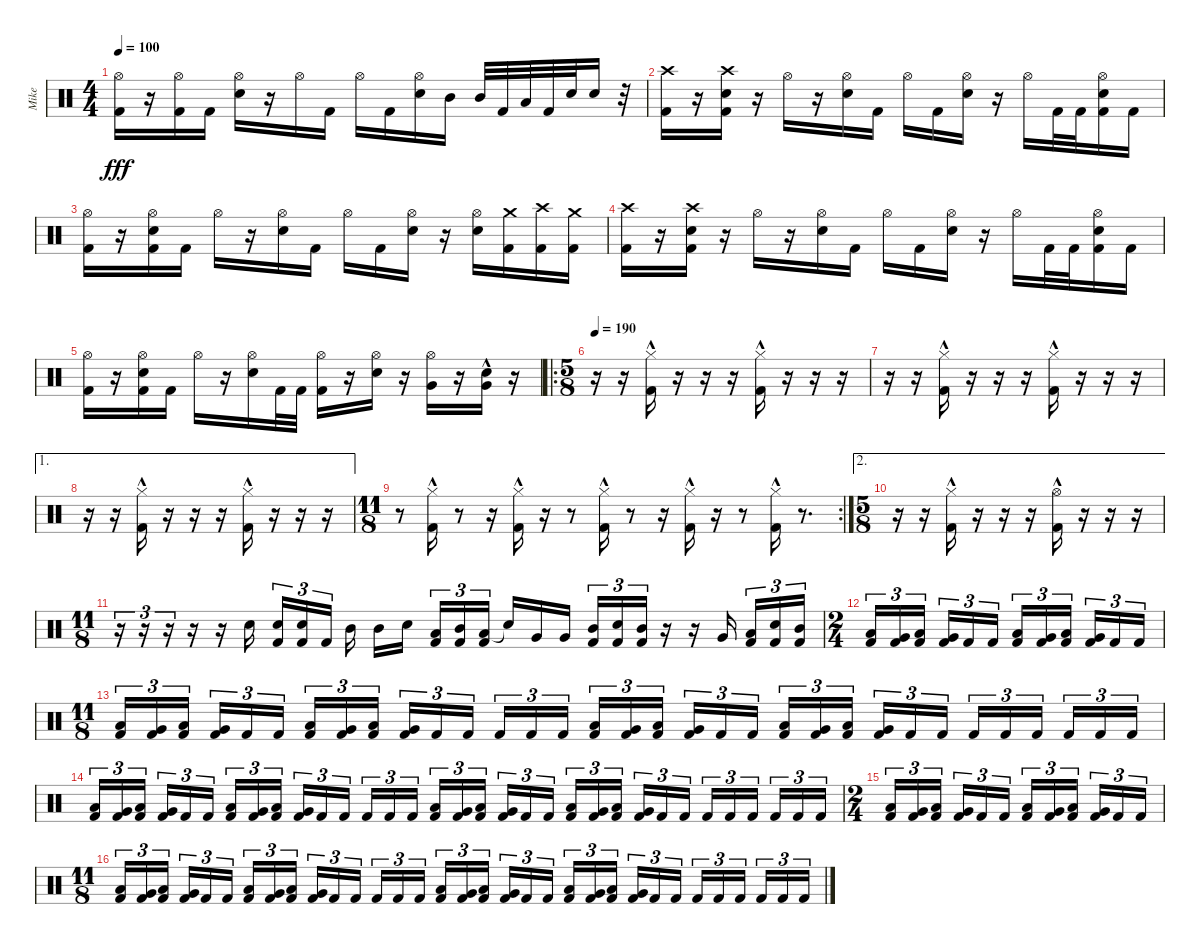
\track ("Mike" "Mike") {instrument percussion}
\staff {score}
\articulation defaults
\ts (4 4)
\tempo 100
\clef neutral
\ks c
("Hi-Hat (open)" "Kick (hit) 2").16{dy fff} r.16 ("Hi-Hat (open)" "Kick (hit) 2").16 "Kick (hit) 2".16 ("Hi-Hat (open)" "Electric Snare (hit)").16 r.16 "Hi-Hat (open)".16 "Kick (hit) 2".16 "Hi-Hat (open)".16 "Kick (hit) 2".16 ("Hi-Hat (open)" "Electric Snare (hit)").16 "Mid Tom (hit)".16 "Mid Tom (hit)".32 "Kick (hit) 2".32 "Low Tom (hit)".32 "Kick (hit) 2".32 "Electric Snare (hit)".32 "Electric Snare (hit)".16 r.32 |
("Crash high (hit)" "Kick (hit) 2").16 r.16 ("Crash high (hit)" "Electric Snare (hit)" "Kick (hit) 2").16 r.16 "Hi-Hat (open)".16 r.16 ("Hi-Hat (open)" "Electric Snare (hit)").16 "Kick (hit) 2".16 "Hi-Hat (open)".16 "Kick (hit) 2".16 ("Hi-Hat (open)" "Electric Snare (hit)").16 r.16 "Hi-Hat (open)".16 "Kick (hit) 2".32 "Kick (hit) 2".32 ("Hi-Hat (open)" "Electric Snare (hit)" "Kick (hit) 2").16 "Kick (hit) 2".16 |
("Hi-Hat (open)" "Kick (hit) 2").16 r.16 ("Hi-Hat (open)" "Electric Snare (hit)" "Kick (hit) 2").16 "Kick (hit) 2".16 "Hi-Hat (open)".16 r.16 ("Hi-Hat (open)" "Electric Snare (hit)").16 "Kick (hit) 2".16 "Hi-Hat (open)".16 "Kick (hit) 2".16 ("Hi-Hat (open)" "Electric Snare (hit)").16 r.16 ("Hi-Hat (open)" "Electric Snare (hit)").16 ("Crash medium (hit)" "Kick (hit) 2").16 ("Crash high (hit)" "Kick (hit) 2").16 ("Crash medium (hit)" "Kick (hit) 2").16 |
("Crash high (hit)" "Kick (hit) 2").16 r.16 ("Crash high (hit)" "Electric Snare (hit)" "Kick (hit) 2").16 r.16 "Hi-Hat (open)".16 r.16 ("Hi-Hat (open)" "Electric Snare (hit)").16 "Kick (hit) 2".16 "Hi-Hat (open)".16 "Kick (hit) 2".16 ("Hi-Hat (open)" "Electric Snare (hit)").16 r.16 "Hi-Hat (open)".16 "Kick (hit) 2".32 "Kick (hit) 2".32 ("Hi-Hat (open)" "Electric Snare (hit)" "Kick (hit) 2").16 "Kick (hit) 2".16 |
("Hi-Hat (open)" "Kick (hit) 2").16 r.16 ("Hi-Hat (open)" "Electric Snare (hit)" "Kick (hit) 2").16 "Kick (hit) 2".16 "Hi-Hat (open)".16 r.16 ("Hi-Hat (open)" "Electric Snare (hit)").16 "Kick (hit) 2".32 "Kick (hit) 2".32 ("Hi-Hat (open)" "Kick (hit) 2").16 r.16 ("Hi-Hat (open)" "Electric Snare (hit)").16 r.16 ("Hi-Hat (open)" "Very Low Tom (hit)").16 r.16 ("Electric Snare (hit)"{hac} "Very Low Tom (hit)").16 r.16 |
\ro
\ts (5 8)
\tempo 190
r.16 r.16 ("Hi-Hat (closed)" "Kick (hit) 2"{hac}).16 r.16 r.16 r.16 ("Hi-Hat (closed)" "Kick (hit) 2"{hac}).16 r.16 r.16 r.16 |
r.16 r.16 ("Hi-Hat (closed)" "Kick (hit) 2"{hac}).16 r.16 r.16 r.16 ("Hi-Hat (closed)" "Kick (hit) 2"{hac}).16 r.16 r.16 r.16 |
\ae 1
r.16 r.16 ("Hi-Hat (closed)" "Kick (hit) 2"{hac}).16 r.16 r.16 r.16 ("Hi-Hat (closed)" "Kick (hit) 2"{hac}).16 r.16 r.16 r.16 |
\rc 2
\ts (11 8)
r.8 ("Hi-Hat (closed)" "Kick (hit) 2"{hac}).16 r.8 r.16 ("Hi-Hat (closed)" "Kick (hit) 2"{hac}).16 r.16 r.8 ("Hi-Hat (closed)" "Kick (hit) 2"{hac}).16 r.8 r.16 ("Hi-Hat (closed)" "Kick (hit) 2"{hac}).16 r.16 r.8 ("Hi-Hat (closed)" "Kick (hit) 2"{hac}).16 r.8{d} |
\ae 2
\ts (5 8)
r.16 r.16 ("Hi-Hat (closed)" "Kick (hit) 2"{hac}).16 r.16 r.16 r.16 ("Hi-Hat (open)" "Kick (hit) 2"{hac}).16 r.16 r.16 r.16 |
\ts (11 8)
r.16{tu (3 2)} r.16{tu (3 2)} r.16{tu (3 2)} r.16 r.16 "Electric Snare (hit)".16{beam splitsecondary} ("Electric Snare (hit)" "Kick (hit) 2").16{tu (3 2)} ("Electric Snare (hit)" "Kick (hit) 2").16{tu (3 2)} "Kick (hit) 2".16{tu (3 2)} "Mid Tom (hit)".16 "Mid Tom (hit)".16 "Electric Snare (hit)".16 ("Low Tom (hit)" "Kick (hit) 2").16{tu (3 2)} ("Mid Tom (hit)" "Kick (hit) 2").16{tu (3 2)} ("Low Tom (hit)" "Kick (hit) 2").16{tu (3 2)} "Snare (hit)"{t}.16 "Very Low Tom (hit)".16 "Very Low Tom (hit)".16{beam splitsecondary} ("Mid Tom (hit)" "Kick (hit) 2").16{tu (3 2)} ("Electric Snare (hit)" "Kick (hit) 2").16{tu (3 2)} ("Mid Tom (hit)" "Kick (hit) 2").16{tu (3 2)} r.16 r.16 "Very Low Tom (hit)".16 ("Low Tom (hit)" "Kick (hit) 2").16{tu (3 2)} ("Electric Snare (hit)" "Kick (hit) 2").16{tu (3 2)} ("Mid Tom (hit)" "Kick (hit) 2").16{tu (3 2)} |
\ts (2 4)
("Low Tom (hit)" "Kick (hit) 2").16{tu (3 2)} ("Very Low Tom (hit)" "Kick (hit) 2").16{tu (3 2)} ("Low Tom (hit)" "Kick (hit) 2").16{tu (3 2) beam splitsecondary} ("Very Low Tom (hit)" "Kick (hit) 2").16{tu (3 2)} "Kick (hit) 2".16{tu (3 2)} "Kick (hit) 2".16{tu (3 2)} ("Low Tom (hit)" "Kick (hit) 2").16{tu (3 2)} ("Very Low Tom (hit)" "Kick (hit) 2").16{tu (3 2)} ("Low Tom (hit)" "Kick (hit) 2").16{tu (3 2) beam splitsecondary} ("Very Low Tom (hit)" "Kick (hit) 2").16{tu (3 2)} "Kick (hit) 2".16{tu (3 2)} "Kick (hit) 2".16{tu (3 2)} |
\ts (11 8)
("Low Tom (hit)" "Kick (hit) 2").16{tu (3 2)} ("Very Low Tom (hit)" "Kick (hit) 2").16{tu (3 2)} ("Low Tom (hit)" "Kick (hit) 2").16{tu (3 2)} ("Very Low Tom (hit)" "Kick (hit) 2").16{tu (3 2)} "Kick (hit) 2".16{tu (3 2)} "Kick (hit) 2".16{tu (3 2)} ("Low Tom (hit)" "Kick (hit) 2").16{tu (3 2)} ("Very Low Tom (hit)" "Kick (hit) 2").16{tu (3 2)} ("Low Tom (hit)" "Kick (hit) 2").16{tu (3 2)} ("Very Low Tom (hit)" "Kick (hit) 2").16{tu (3 2)} "Kick (hit) 2".16{tu (3 2)} "Kick (hit) 2".16{tu (3 2)} "Kick (hit) 2".16{tu (3 2)} "Kick (hit) 2".16{tu (3 2)} "Kick (hit) 2".16{tu (3 2)} ("Low Tom (hit)" "Kick (hit) 2").16{tu (3 2)} ("Very Low Tom (hit)" "Kick (hit) 2").16{tu (3 2)} ("Low Tom (hit)" "Kick (hit) 2").16{tu (3 2)} ("Very Low Tom (hit)" "Kick (hit) 2").16{tu (3 2)} "Kick (hit) 2".16{tu (3 2)} "Kick (hit) 2".16{tu (3 2)} ("Low Tom (hit)" "Kick (hit) 2").16{tu (3 2)} ("Very Low Tom (hit)" "Kick (hit) 2").16{tu (3 2)} ("Low Tom (hit)" "Kick (hit) 2").16{tu (3 2)} ("Very Low Tom (hit)" "Kick (hit) 2").16{tu (3 2)} "Kick (hit) 2".16{tu (3 2)} "Kick (hit) 2".16{tu (3 2)} "Kick (hit) 2".16{tu (3 2)} "Kick (hit) 2".16{tu (3 2)} "Kick (hit) 2".16{tu (3 2)} "Kick (hit) 2".16{tu (3 2)} "Kick (hit) 2".16{tu (3 2)} "Kick (hit) 2".16{tu (3 2)} |
("Low Tom (hit)" "Kick (hit) 2").16{tu (3 2)} ("Very Low Tom (hit)" "Kick (hit) 2").16{tu (3 2)} ("Low Tom (hit)" "Kick (hit) 2").16{tu (3 2)} ("Very Low Tom (hit)" "Kick (hit) 2").16{tu (3 2)} "Kick (hit) 2".16{tu (3 2)} "Kick (hit) 2".16{tu (3 2)} ("Low Tom (hit)" "Kick (hit) 2").16{tu (3 2)} ("Very Low Tom (hit)" "Kick (hit) 2").16{tu (3 2)} ("Low Tom (hit)" "Kick (hit) 2").16{tu (3 2)} ("Very Low Tom (hit)" "Kick (hit) 2").16{tu (3 2)} "Kick (hit) 2".16{tu (3 2)} "Kick (hit) 2".16{tu (3 2)} "Kick (hit) 2".16{tu (3 2)} "Kick (hit) 2".16{tu (3 2)} "Kick (hit) 2".16{tu (3 2)} ("Low Tom (hit)" "Kick (hit) 2").16{tu (3 2)} ("Very Low Tom (hit)" "Kick (hit) 2").16{tu (3 2)} ("Low Tom (hit)" "Kick (hit) 2").16{tu (3 2)} ("Very Low Tom (hit)" "Kick (hit) 2").16{tu (3 2)} "Kick (hit) 2".16{tu (3 2)} "Kick (hit) 2".16{tu (3 2)} ("Low Tom (hit)" "Kick (hit) 2").16{tu (3 2)} ("Very Low Tom (hit)" "Kick (hit) 2").16{tu (3 2)} ("Low Tom (hit)" "Kick (hit) 2").16{tu (3 2)} ("Very Low Tom (hit)" "Kick (hit) 2").16{tu (3 2)} "Kick (hit) 2".16{tu (3 2)} "Kick (hit) 2".16{tu (3 2)} "Kick (hit) 2".16{tu (3 2)} "Kick (hit) 2".16{tu (3 2)} "Kick (hit) 2".16{tu (3 2)} "Kick (hit) 2".16{tu (3 2)} "Kick (hit) 2".16{tu (3 2)} "Kick (hit) 2".16{tu (3 2)} |
\ts (2 4)
("Low Tom (hit)" "Kick (hit) 2").16{tu (3 2)} ("Very Low Tom (hit)" "Kick (hit) 2").16{tu (3 2)} ("Low Tom (hit)" "Kick (hit) 2").16{tu (3 2) beam splitsecondary} ("Very Low Tom (hit)" "Kick (hit) 2").16{tu (3 2)} "Kick (hit) 2".16{tu (3 2)} "Kick (hit) 2".16{tu (3 2)} ("Low Tom (hit)" "Kick (hit) 2").16{tu (3 2)} ("Very Low Tom (hit)" "Kick (hit) 2").16{tu (3 2)} ("Low Tom (hit)" "Kick (hit) 2").16{tu (3 2) beam splitsecondary} ("Very Low Tom (hit)" "Kick (hit) 2").16{tu (3 2)} "Kick (hit) 2".16{tu (3 2)} "Kick (hit) 2".16{tu (3 2)} |
\ts (11 8)
("Low Tom (hit)" "Kick (hit) 2").16{tu (3 2)} ("Very Low Tom (hit)" "Kick (hit) 2").16{tu (3 2)} ("Low Tom (hit)" "Kick (hit) 2").16{tu (3 2)} ("Very Low Tom (hit)" "Kick (hit) 2").16{tu (3 2)} "Kick (hit) 2".16{tu (3 2)} "Kick (hit) 2".16{tu (3 2)} ("Low Tom (hit)" "Kick (hit) 2").16{tu (3 2)} ("Very Low Tom (hit)" "Kick (hit) 2").16{tu (3 2)} ("Low Tom (hit)" "Kick (hit) 2").16{tu (3 2)} ("Very Low Tom (hit)" "Kick (hit) 2").16{tu (3 2)} "Kick (hit) 2".16{tu (3 2)} "Kick (hit) 2".16{tu (3 2)} "Kick (hit) 2".16{tu (3 2)} "Kick (hit) 2".16{tu (3 2)} "Kick (hit) 2".16{tu (3 2)} ("Low Tom (hit)" "Kick (hit) 2").16{tu (3 2)} ("Very Low Tom (hit)" "Kick (hit) 2").16{tu (3 2)} ("Low Tom (hit)" "Kick (hit) 2").16{tu (3 2)} ("Very Low Tom (hit)" "Kick (hit) 2").16{tu (3 2)} "Kick (hit) 2".16{tu (3 2)} "Kick (hit) 2".16{tu (3 2)} ("Low Tom (hit)" "Kick (hit) 2").16{tu (3 2)} ("Very Low Tom (hit)" "Kick (hit) 2").16{tu (3 2)} ("Low Tom (hit)" "Kick (hit) 2").16{tu (3 2)} ("Very Low Tom (hit)" "Kick (hit) 2").16{tu (3 2)} "Kick (hit) 2".16{tu (3 2)} "Kick (hit) 2".16{tu (3 2)} "Kick (hit) 2".16{tu (3 2)} "Kick (hit) 2".16{tu (3 2)} "Kick (hit) 2".16{tu (3 2)} "Kick (hit) 2".16{tu (3 2)} "Kick (hit) 2".16{tu (3 2)} "Kick (hit) 2".16{tu (3 2)}
